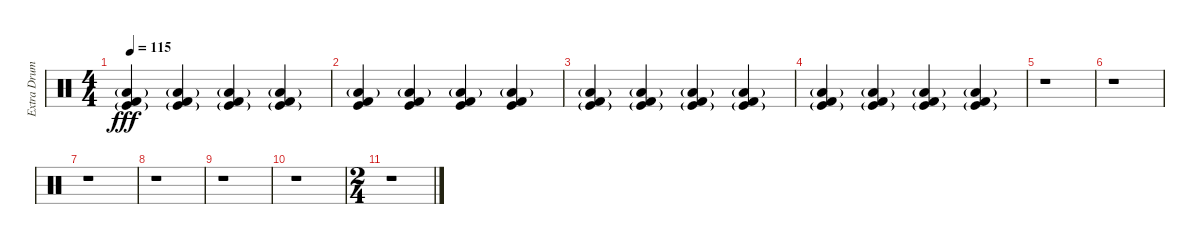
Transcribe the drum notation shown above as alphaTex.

\track ("Extra Drum" "Extra Drum") {instrument percussion}
\staff {score}
\articulation defaults
\ts (4 4)
\tempo 115
\clef neutral
\ks c
("Low Floor Tom (hit)"{g} "Kick (hit)"{g} "Kick (hit) 2").4{dy fff} ("Low Floor Tom (hit)"{g} "Kick (hit)"{g} "Kick (hit) 2").4 ("Low Floor Tom (hit)"{g} "Kick (hit)"{g} "Kick (hit) 2").4 ("Low Floor Tom (hit)"{g} "Kick (hit)"{g} "Kick (hit) 2").4 |
("Low Floor Tom (hit)"{g} "Kick (hit)" "Kick (hit) 2").4 ("Low Floor Tom (hit)"{g} "Kick (hit)" "Kick (hit) 2").4 ("Low Floor Tom (hit)"{g} "Kick (hit)" "Kick (hit) 2").4 ("Low Floor Tom (hit)"{g} "Kick (hit)" "Kick (hit) 2").4 |
("Low Floor Tom (hit)"{g} "Kick (hit)"{g} "Kick (hit) 2").4 ("Low Floor Tom (hit)"{g} "Kick (hit)"{g} "Kick (hit) 2").4 ("Low Floor Tom (hit)"{g} "Kick (hit)"{g} "Kick (hit) 2").4 ("Low Floor Tom (hit)"{g} "Kick (hit)"{g} "Kick (hit) 2").4 |
("Low Floor Tom (hit)"{g} "Kick (hit)"{g} "Kick (hit) 2").4 ("Low Floor Tom (hit)"{g} "Kick (hit)"{g} "Kick (hit) 2").4 ("Low Floor Tom (hit)"{g} "Kick (hit)"{g} "Kick (hit) 2").4 ("Low Floor Tom (hit)"{g} "Kick (hit)"{g} "Kick (hit) 2").4 |
r.1 |
r.1 |
r.1 |
r.1 |
r.1 |
r.1 |
\ts (2 4)
r.1
